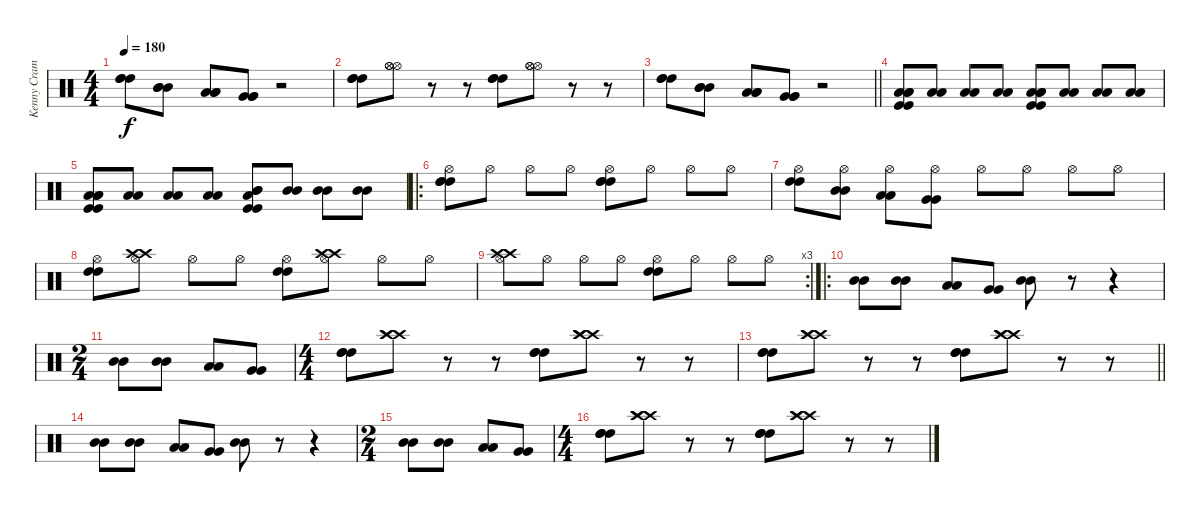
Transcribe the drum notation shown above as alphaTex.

\track ("Kenny Cramme" "Kenny Cram") {instrument percussion}
\staff {score}
\articulation defaults
\ts (4 4)
\tempo 180
\clef neutral
\ks c
("High Tom (hit)" "High Tom (hit)" "High Tom (hit)").8{dy f} ("Mid Tom (hit)" "Mid Tom (hit)" "Mid Tom (hit)").8 ("Low Tom (hit)" "Low Tom (hit)" "Low Tom (hit)").8 ("Very Low Tom (hit)" "Very Low Tom (hit)" "Very Low Tom (hit)").8 r.2 |
("High Tom (hit)" "High Tom (hit)" "High Tom (hit)").8 ("Hi-Hat (open)" "Hi-Hat (open)" "Hi-Hat (open)").8 r.8 r.8 ("High Tom (hit)" "High Tom (hit)" "High Tom (hit)").8 ("Hi-Hat (open)" "Hi-Hat (open)" "Hi-Hat (open)").8 r.8 r.8 |
\barLineRight lightlight
("High Tom (hit)" "High Tom (hit)" "High Tom (hit)").8 ("Mid Tom (hit)" "Mid Tom (hit)" "Mid Tom (hit)").8 ("Low Tom (hit)" "Low Tom (hit)" "Low Tom (hit)").8 ("Very Low Tom (hit)" "Very Low Tom (hit)" "Very Low Tom (hit)").8 r.2 |
("Kick (hit)" "Kick (hit)" "Low Floor Tom (hit)" "Low Floor Tom (hit)" "Low Floor Tom (hit)").8 ("Low Floor Tom (hit)" "Low Floor Tom (hit)").8 ("Low Floor Tom (hit)" "Low Floor Tom (hit)").8 ("Low Floor Tom (hit)" "Low Floor Tom (hit)").8 ("Kick (hit)" "Kick (hit)" "Low Floor Tom (hit)" "Low Floor Tom (hit)" "Low Floor Tom (hit)").8 ("Low Tom (hit)" "Low Tom (hit)").8 ("Low Tom (hit)" "Low Tom (hit)").8 ("Low Tom (hit)" "Low Tom (hit)").8 |
("Kick (hit)" "Kick (hit)" "Low Tom (hit)" "Low Tom (hit)" "Low Floor Tom (hit)").8 ("Low Tom (hit)" "Low Tom (hit)").8 ("Low Tom (hit)" "Low Tom (hit)").8 ("Low Tom (hit)" "Low Tom (hit)").8 ("Kick (hit)" "Kick (hit)" "Mid Tom (hit)" "Mid Tom (hit)" "Low Floor Tom (hit)").8 ("Mid Tom (hit)" "Mid Tom (hit)").8 ("Mid Tom (hit)" "Mid Tom (hit)").8 ("Mid Tom (hit)" "Mid Tom (hit)").8 |
\ro
("High Tom (hit)" "High Tom (hit)" "High Tom (hit)" "Hi-Hat (open)").8 "Hi-Hat (open)".8 "Hi-Hat (open)".8 "Hi-Hat (open)".8 ("High Tom (hit)" "High Tom (hit)" "High Tom (hit)" "Hi-Hat (open)").8 "Hi-Hat (open)".8 "Hi-Hat (open)".8 "Hi-Hat (open)".8 |
("High Tom (hit)" "High Tom (hit)" "Hi-Hat (open)").8 ("Mid Tom (hit)" "Mid Tom (hit)" "Hi-Hat (open)").8 ("Low Tom (hit)" "Low Tom (hit)" "Hi-Hat (open)").8 ("Very Low Tom (hit)" "Very Low Tom (hit)" "Hi-Hat (open)").8 "Hi-Hat (open)".8 "Hi-Hat (open)".8 "Hi-Hat (open)".8 "Hi-Hat (open)".8 |
("High Tom (hit)" "High Tom (hit)" "Hi-Hat (open)").8 ("Crash high (hit)" "Crash high (hit)" "Hi-Hat (open)").8 "Hi-Hat (open)".8 "Hi-Hat (open)".8 ("High Tom (hit)" "High Tom (hit)" "Hi-Hat (open)").8 ("Crash high (hit)" "Crash high (hit)" "Hi-Hat (open)").8 "Hi-Hat (open)".8 "Hi-Hat (open)".8 |
\rc 3
("Crash high (hit)" "Crash high (hit)" "Hi-Hat (open)").8 "Hi-Hat (open)".8 "Hi-Hat (open)".8 "Hi-Hat (open)".8 ("High Tom (hit)" "High Tom (hit)" "Hi-Hat (open)").8 "Hi-Hat (open)".8 "Hi-Hat (open)".8 "Hi-Hat (open)".8 |
\ro
("Mid Tom (hit)" "Mid Tom (hit)").8 ("Mid Tom (hit)" "Mid Tom (hit)").8 ("Low Tom (hit)" "Low Tom (hit)").8 ("Very Low Tom (hit)" "Very Low Tom (hit)").8 ("Mid Tom (hit)" "Mid Tom (hit)").8 r.8 r.4 |
\ts (2 4)
("Mid Tom (hit)" "Mid Tom (hit)").8 ("Mid Tom (hit)" "Mid Tom (hit)").8 ("Low Tom (hit)" "Low Tom (hit)").8 ("Very Low Tom (hit)" "Very Low Tom (hit)").8 |
\ts (4 4)
("High Tom (hit)" "High Tom (hit)" "High Tom (hit)").8 ("Crash high (hit)" "Crash high (hit)" "Crash high (hit)").8 r.8 r.8 ("High Tom (hit)" "High Tom (hit)" "High Tom (hit)").8 ("Crash high (hit)" "Crash high (hit)" "Crash high (hit)").8 r.8 r.8 |
\barLineRight lightlight
("High Tom (hit)" "High Tom (hit)" "High Tom (hit)").8 ("Crash high (hit)" "Crash high (hit)" "Crash high (hit)").8 r.8 r.8 ("High Tom (hit)" "High Tom (hit)" "High Tom (hit)").8 ("Crash high (hit)" "Crash high (hit)" "Crash high (hit)").8 r.8 r.8 |
("Mid Tom (hit)" "Mid Tom (hit)").8 ("Mid Tom (hit)" "Mid Tom (hit)").8 ("Low Tom (hit)" "Low Tom (hit)").8 ("Very Low Tom (hit)" "Very Low Tom (hit)").8 ("Mid Tom (hit)" "Mid Tom (hit)").8 r.8 r.4 |
\ts (2 4)
("Mid Tom (hit)" "Mid Tom (hit)").8 ("Mid Tom (hit)" "Mid Tom (hit)").8 ("Low Tom (hit)" "Low Tom (hit)").8 ("Very Low Tom (hit)" "Very Low Tom (hit)").8 |
\ts (4 4)
("High Tom (hit)" "High Tom (hit)" "High Tom (hit)").8 ("Crash high (hit)" "Crash high (hit)" "Crash high (hit)").8 r.8 r.8 ("High Tom (hit)" "High Tom (hit)" "High Tom (hit)").8 ("Crash high (hit)" "Crash high (hit)" "Crash high (hit)").8 r.8 r.8
